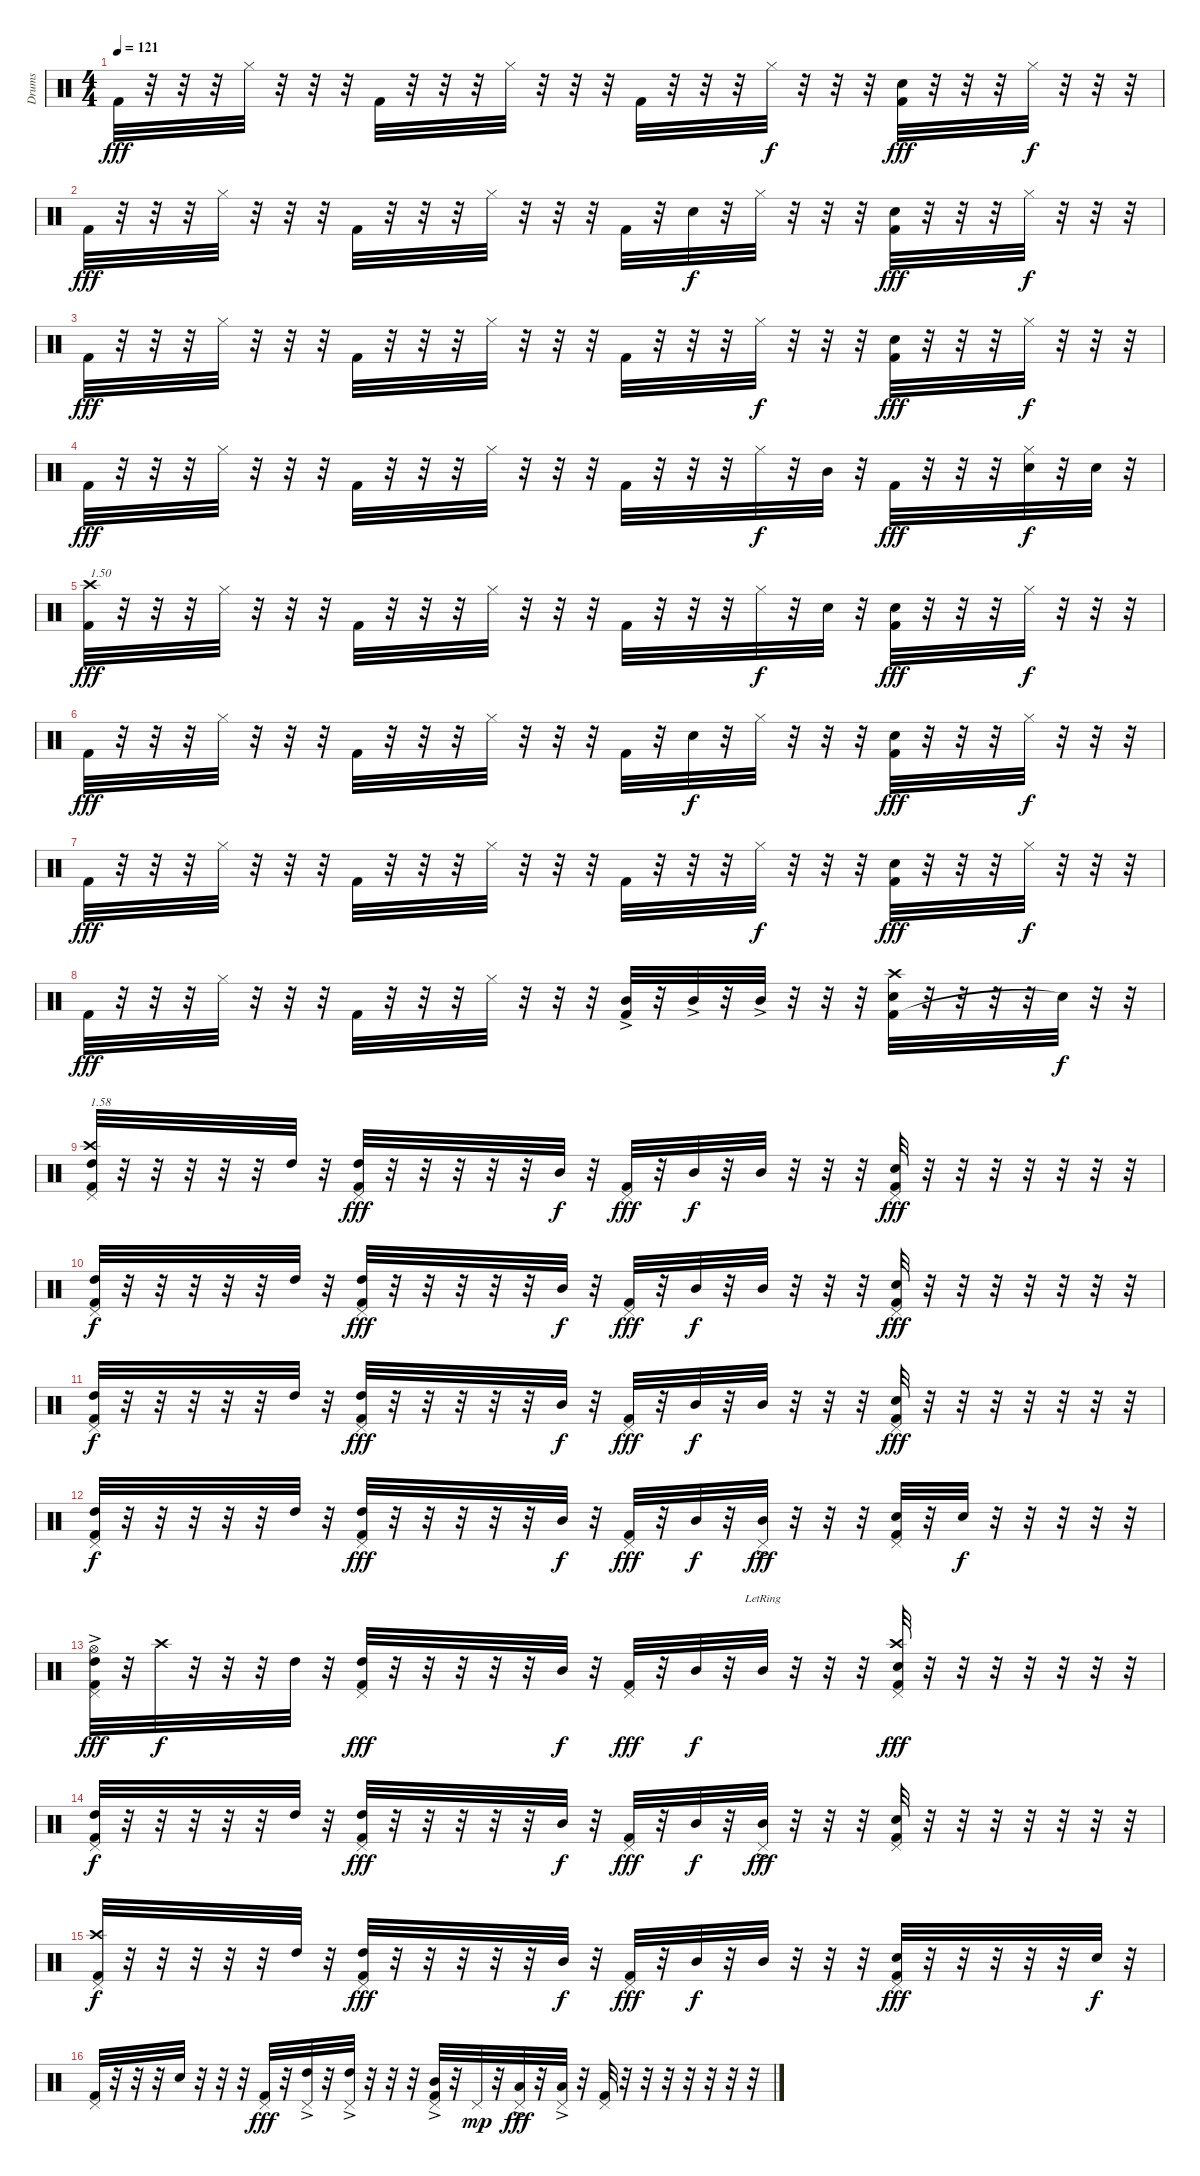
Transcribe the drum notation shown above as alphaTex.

\track ("Drums" "Drums") {instrument percussion}
\staff {score}
\articulation defaults
\ts (4 4)
\tempo 121
\clef neutral
\ks c "Kick (hit) 2".32{dy fff}
r.32 r.32 r.32 "Hi-Hat (closed)".32 r.32 r.32 r.32 "Kick (hit) 2".32 r.32 r.32 r.32 "Hi-Hat (closed)".32 r.32 r.32 r.32 "Kick (hit) 2".32 r.32 r.32 r.32 "Hi-Hat (closed)".32{dy f} r.32 r.32 r.32 ("Kick (hit) 2" "Electric Snare (hit)").32{dy fff} r.32 r.32 r.32 "Hi-Hat (closed)".32{dy f} r.32 r.32 r.32 |
"Kick (hit) 2".32{dy fff} r.32 r.32 r.32 "Hi-Hat (closed)".32 r.32 r.32 r.32 "Kick (hit) 2".32 r.32 r.32 r.32 "Hi-Hat (closed)".32 r.32 r.32 r.32 "Kick (hit) 2".32 r.32 "Electric Snare (hit)".32{dy f} r.32 "Hi-Hat (closed)".32 r.32 r.32 r.32 ("Kick (hit) 2" "Electric Snare (hit)").32{dy fff} r.32 r.32 r.32 "Hi-Hat (closed)".32{dy f} r.32 r.32 r.32 |
"Kick (hit) 2".32{dy fff} r.32 r.32 r.32 "Hi-Hat (closed)".32 r.32 r.32 r.32 "Kick (hit) 2".32 r.32 r.32 r.32 "Hi-Hat (closed)".32 r.32 r.32 r.32 "Kick (hit) 2".32 r.32 r.32 r.32 "Hi-Hat (closed)".32{dy f} r.32 r.32 r.32 ("Kick (hit) 2" "Electric Snare (hit)").32{dy fff} r.32 r.32 r.32 "Hi-Hat (closed)".32{dy f} r.32 r.32 r.32 |
"Kick (hit) 2".32{dy fff} r.32 r.32 r.32 "Hi-Hat (closed)".32 r.32 r.32 r.32 "Kick (hit) 2".32 r.32 r.32 r.32 "Hi-Hat (closed)".32 r.32 r.32 r.32 "Kick (hit) 2".32 r.32 r.32 r.32 "Hi-Hat (closed)".32{dy f} r.32 "Mid Tom (hit)".32 r.32 "Kick (hit) 2".32{dy fff} r.32 r.32 r.32 ("Hi-Hat (closed)" "Electric Snare (hit)").32{dy f} r.32 "Electric Snare (hit)".32 r.32 |
("Kick (hit) 2" "Crash high (hit)").32{txt "1.50" dy fff} r.32 r.32 r.32 "Hi-Hat (closed)".32 r.32 r.32 r.32 "Kick (hit) 2".32 r.32 r.32 r.32 "Hi-Hat (closed)".32 r.32 r.32 r.32 "Kick (hit) 2".32 r.32 r.32 r.32 "Hi-Hat (closed)".32{dy f} r.32 "Electric Snare (hit)".32 r.32 ("Kick (hit) 2" "Electric Snare (hit)").32{dy fff} r.32 r.32 r.32 "Hi-Hat (closed)".32{dy f} r.32 r.32 r.32 |
"Kick (hit) 2".32{dy fff} r.32 r.32 r.32 "Hi-Hat (closed)".32 r.32 r.32 r.32 "Kick (hit) 2".32 r.32 r.32 r.32 "Hi-Hat (closed)".32 r.32 r.32 r.32 "Kick (hit) 2".32 r.32 "Electric Snare (hit)".32{dy f} r.32 "Hi-Hat (closed)".32 r.32 r.32 r.32 ("Kick (hit) 2" "Electric Snare (hit)").32{dy fff} r.32 r.32 r.32 "Hi-Hat (closed)".32{dy f} r.32 r.32 r.32 |
"Kick (hit) 2".32{dy fff} r.32 r.32 r.32 "Hi-Hat (closed)".32 r.32 r.32 r.32 "Kick (hit) 2".32 r.32 r.32 r.32 "Hi-Hat (closed)".32 r.32 r.32 r.32 "Kick (hit) 2".32 r.32 r.32 r.32 "Hi-Hat (closed)".32{dy f} r.32 r.32 r.32 ("Kick (hit) 2" "Electric Snare (hit)").32{dy fff} r.32 r.32 r.32 "Hi-Hat (closed)".32{dy f} r.32 r.32 r.32 |
"Kick (hit) 2".32{dy fff} r.32 r.32 r.32 "Hi-Hat (closed)".32 r.32 r.32 r.32 "Kick (hit) 2".32 r.32 r.32 r.32 "Hi-Hat (closed)".32 r.32 r.32 r.32 ("Kick (hit) 2" "Mid Tom (hit)"{ac}).32 r.32 "Mid Tom (hit)"{ac}.32 r.32 "Mid Tom (hit)"{ac}.32 r.32 r.32 r.32 ("Kick (hit) 2" "Crash high (hit)" "Electric Snare (hit)").32 r.32 r.32 r.32 r.32 "Snare (hit)"{t}.32{dy f} r.32 r.32 |
("Pedal Hi-Hat (hit)" "Kick (hit) 2" "High Tom (hit)" "Crash high (hit)").32{txt "1.58"} r.32 r.32 r.32 r.32 r.32 "High Tom (hit)".32 r.32 ("Pedal Hi-Hat (hit)" "Kick (hit) 2" "High Tom (hit)").32{dy fff} r.32 r.32 r.32 r.32 r.32 "Mid Tom (hit)".32{dy f} r.32 ("Pedal Hi-Hat (hit)" "Kick (hit) 2").32{dy fff} r.32 "Mid Tom (hit)".32{dy f} r.32 "Mid Tom (hit)".32 r.32 r.32 r.32 ("Pedal Hi-Hat (hit)" "Kick (hit) 2" "Electric Snare (hit)").32{dy fff} r.32 r.32 r.32 r.32 r.32 r.32 r.32 |
("Pedal Hi-Hat (hit)" "Kick (hit) 2" "High Tom (hit)").32{dy f} r.32 r.32 r.32 r.32 r.32 "High Tom (hit)".32 r.32 ("Pedal Hi-Hat (hit)" "Kick (hit) 2" "High Tom (hit)").32{dy fff} r.32 r.32 r.32 r.32 r.32 "Mid Tom (hit)".32{dy f} r.32 ("Pedal Hi-Hat (hit)" "Kick (hit) 2").32{dy fff} r.32 "Mid Tom (hit)".32{dy f} r.32 "Mid Tom (hit)".32 r.32 r.32 r.32 ("Pedal Hi-Hat (hit)" "Kick (hit) 2" "Electric Snare (hit)").32{dy fff} r.32 r.32 r.32 r.32 r.32 r.32 r.32 |
("Pedal Hi-Hat (hit)" "Kick (hit) 2" "High Tom (hit)").32{dy f} r.32 r.32 r.32 r.32 r.32 "High Tom (hit)".32 r.32 ("Pedal Hi-Hat (hit)" "Kick (hit) 2" "High Tom (hit)").32{dy fff} r.32 r.32 r.32 r.32 r.32 "Mid Tom (hit)".32{dy f} r.32 ("Pedal Hi-Hat (hit)" "Kick (hit) 2").32{dy fff} r.32 "Mid Tom (hit)".32{dy f} r.32 "Mid Tom (hit)".32 r.32 r.32 r.32 ("Pedal Hi-Hat (hit)" "Kick (hit) 2" "Electric Snare (hit)").32{dy fff} r.32 r.32 r.32 r.32 r.32 r.32 r.32 |
("Pedal Hi-Hat (hit)" "Kick (hit) 2" "High Tom (hit)").32{dy f} r.32 r.32 r.32 r.32 r.32 "High Tom (hit)".32 r.32 ("Pedal Hi-Hat (hit)" "Kick (hit) 2" "High Tom (hit)").32{dy fff} r.32 r.32 r.32 r.32 r.32 "Mid Tom (hit)".32{dy f} r.32 ("Pedal Hi-Hat (hit)" "Kick (hit) 2").32{dy fff} r.32 "Mid Tom (hit)".32{dy f} r.32 ("Pedal Hi-Hat (hit)" "Mid Tom (hit)"{ac}).32{dy fff} r.32 r.32 r.32 ("Pedal Hi-Hat (hit)" "Kick (hit) 2" "Electric Snare (hit)").32 r.32 "Electric Snare (hit)".32{dy f} r.32 r.32 r.32 r.32 r.32 |
("Pedal Hi-Hat (hit)" "Kick (hit) 2" "High Tom (hit)" "Hi-Hat (open)"{ac}).32{dy fff} r.32 "Crash high (hit)".32{dy f} r.32 r.32 r.32 "High Tom (hit)".32 r.32 ("Pedal Hi-Hat (hit)" "Kick (hit) 2" "High Tom (hit)").32{dy fff} r.32 r.32 r.32 r.32 r.32 "Mid Tom (hit)".32{dy f} r.32 ("Pedal Hi-Hat (hit)" "Kick (hit) 2").32{dy fff} r.32 "Mid Tom (hit)".32{dy f} r.32 "Mid Tom (hit)"{lr}.32 r.32 r.32 r.32 ("Pedal Hi-Hat (hit)" "Kick (hit) 2" "Crash high (hit)" "Electric Snare (hit)").32{dy fff} r.32 r.32 r.32 r.32 r.32 r.32 r.32 |
("Pedal Hi-Hat (hit)" "Kick (hit) 2" "High Tom (hit)").32{dy f} r.32 r.32 r.32 r.32 r.32 "High Tom (hit)".32 r.32 ("Pedal Hi-Hat (hit)" "Kick (hit) 2" "High Tom (hit)").32{dy fff} r.32 r.32 r.32 r.32 r.32 "Mid Tom (hit)".32{dy f} r.32 ("Pedal Hi-Hat (hit)" "Kick (hit) 2").32{dy fff} r.32 "Mid Tom (hit)".32{dy f} r.32 ("Pedal Hi-Hat (hit)" "Mid Tom (hit)"{ac}).32{dy fff} r.32 r.32 r.32 ("Pedal Hi-Hat (hit)" "Kick (hit) 2" "Electric Snare (hit)").32 r.32 r.32 r.32 r.32 r.32 r.32 r.32 |
("Pedal Hi-Hat (hit)" "Kick (hit) 2" "Crash high (hit)").32{dy f} r.32 r.32 r.32 r.32 r.32 "High Tom (hit)".32 r.32 ("Pedal Hi-Hat (hit)" "Kick (hit) 2" "High Tom (hit)").32{dy fff} r.32 r.32 r.32 r.32 r.32 "Mid Tom (hit)".32{dy f} r.32 ("Pedal Hi-Hat (hit)" "Kick (hit) 2").32{dy fff} r.32 "Mid Tom (hit)".32{dy f} r.32 "Mid Tom (hit)".32 r.32 r.32 r.32 ("Pedal Hi-Hat (hit)" "Kick (hit) 2" "Electric Snare (hit)").32{dy fff} r.32 r.32 r.32 r.32 r.32 "Electric Snare (hit)".32{dy f} r.32 |
("Pedal Hi-Hat (hit)" "Kick (hit) 2").32 r.32 r.32 r.32 "Electric Snare (hit)".32 r.32 r.32 r.32 ("Pedal Hi-Hat (hit)" "Kick (hit) 2").32{dy fff} r.32 ("Pedal Hi-Hat (hit)" "High Tom (hit)"{ac}).32 r.32 ("Pedal Hi-Hat (hit)" "High Tom (hit)"{ac}).32 r.32 r.32 r.32 ("Pedal Hi-Hat (hit)" "Kick (hit) 2" "Mid Tom (hit)"{ac}).32 r.32 "Pedal Hi-Hat (hit)".32{dy mp} r.32 ("Pedal Hi-Hat (hit)" "Low Tom (hit)"{ac}).32{dy fff} r.32 ("Pedal Hi-Hat (hit)" "Low Tom (hit)"{ac}).32 r.32 ("Pedal Hi-Hat (hit)" "Kick (hit) 2").32 r.32 r.32 r.32 r.32 r.32 r.32 r.32
